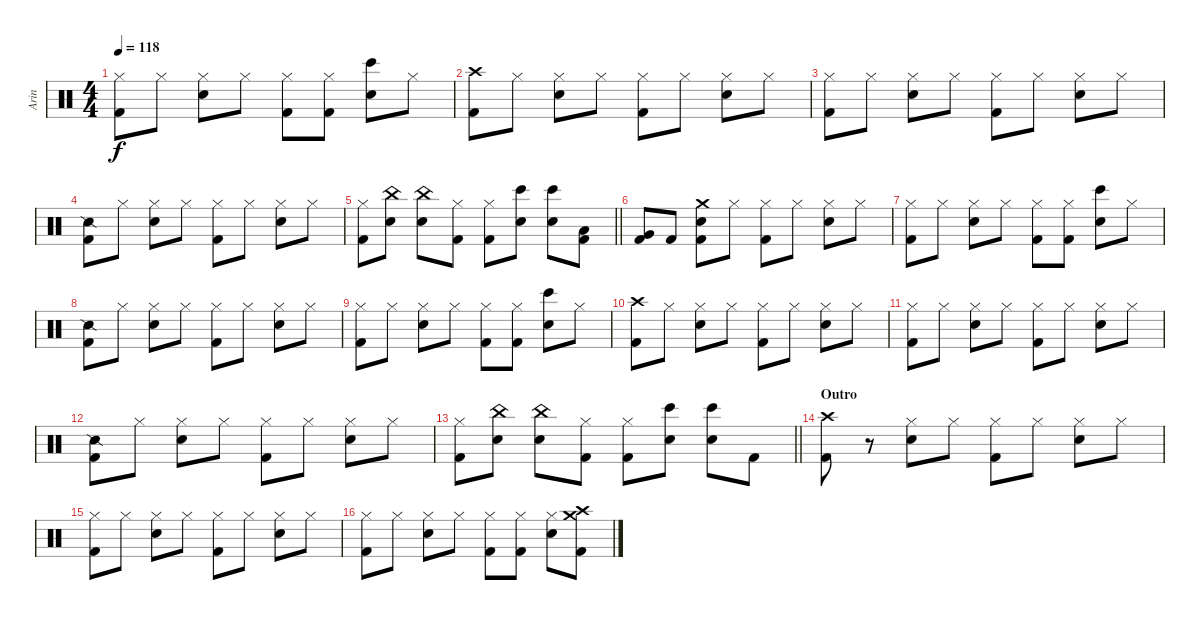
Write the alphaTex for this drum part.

\track ("Arin" "Arin") {instrument percussion}
\staff {score}
\articulation defaults
\ts (4 4)
\tempo 118
\clef neutral
\ks c
("Hi-Hat (closed)" "Kick (hit) 2").8{dy f} "Hi-Hat (closed)".8 ("Hi-Hat (closed)" "Electric Snare (hit)").8 "Hi-Hat (closed)".8 ("Hi-Hat (closed)" "Kick (hit) 2").8 ("Hi-Hat (closed)" "Kick (hit) 2").8 ("Bongo High (hit)" "Electric Snare (hit)").8 "Hi-Hat (closed)".8 |
("Crash high (hit)" "Kick (hit) 2").8 "Hi-Hat (closed)".8 ("Hi-Hat (closed)" "Electric Snare (hit)").8 "Hi-Hat (closed)".8 ("Hi-Hat (closed)" "Kick (hit) 2").8 "Hi-Hat (closed)".8 ("Hi-Hat (closed)" "Electric Snare (hit)").8 "Hi-Hat (closed)".8 |
("Hi-Hat (closed)" "Kick (hit) 2").8 "Hi-Hat (closed)".8 ("Hi-Hat (closed)" "Electric Snare (hit)").8 "Hi-Hat (closed)".8 ("Hi-Hat (closed)" "Kick (hit) 2").8 "Hi-Hat (closed)".8 ("Hi-Hat (closed)" "Electric Snare (hit)").8 "Hi-Hat (closed)".8 |
("Snare (side stick) 2" "Kick (hit) 2").8 "Hi-Hat (closed)".8 ("Hi-Hat (closed)" "Electric Snare (hit)").8 "Hi-Hat (closed)".8 ("Hi-Hat (closed)" "Kick (hit) 2").8 "Hi-Hat (closed)".8 ("Hi-Hat (closed)" "Electric Snare (hit)").8 "Hi-Hat (closed)".8 |
\barLineRight lightlight
("Hi-Hat (closed)" "Kick (hit) 2").8 ("China (hit)" "Electric Snare (hit)").8 ("China (hit)" "Electric Snare (hit)").8 ("Hi-Hat (closed)" "Kick (hit) 2").8 ("Hi-Hat (closed)" "Kick (hit) 2").8 ("Bongo High (hit)" "Electric Snare (hit)").8 ("Bongo High (hit)" "Electric Snare (hit)").8 ("Low Tom (hit)" "Kick (hit) 2").8 |
("Very Low Tom (hit)" "Kick (hit) 2").8 "Kick (hit) 2".8 ("Crash medium (hit)" "Electric Snare (hit)" "Kick (hit) 2").8 "Hi-Hat (closed)".8 ("Hi-Hat (closed)" "Kick (hit) 2").8 "Hi-Hat (closed)".8 ("Hi-Hat (closed)" "Electric Snare (hit)").8 "Hi-Hat (closed)".8 |
("Hi-Hat (closed)" "Kick (hit) 2").8 "Hi-Hat (closed)".8 ("Hi-Hat (closed)" "Electric Snare (hit)").8 "Hi-Hat (closed)".8 ("Hi-Hat (closed)" "Kick (hit) 2").8 ("Hi-Hat (closed)" "Kick (hit) 2").8 ("Bongo High (hit)" "Electric Snare (hit)").8 "Hi-Hat (closed)".8 |
("Snare (side stick) 2" "Kick (hit) 2").8 "Hi-Hat (closed)".8 ("Hi-Hat (closed)" "Electric Snare (hit)").8 "Hi-Hat (closed)".8 ("Hi-Hat (closed)" "Kick (hit) 2").8 "Hi-Hat (closed)".8 ("Hi-Hat (closed)" "Electric Snare (hit)").8 "Hi-Hat (closed)".8 |
("Hi-Hat (closed)" "Kick (hit) 2").8 "Hi-Hat (closed)".8 ("Hi-Hat (closed)" "Electric Snare (hit)").8 "Hi-Hat (closed)".8 ("Hi-Hat (closed)" "Kick (hit) 2").8 ("Hi-Hat (closed)" "Kick (hit) 2").8 ("Bongo High (hit)" "Electric Snare (hit)").8 "Hi-Hat (closed)".8 |
("Crash high (hit)" "Kick (hit) 2").8 "Hi-Hat (closed)".8 ("Hi-Hat (closed)" "Electric Snare (hit)").8 "Hi-Hat (closed)".8 ("Hi-Hat (closed)" "Kick (hit) 2").8 "Hi-Hat (closed)".8 ("Hi-Hat (closed)" "Electric Snare (hit)").8 "Hi-Hat (closed)".8 |
("Hi-Hat (closed)" "Kick (hit) 2").8 "Hi-Hat (closed)".8 ("Hi-Hat (closed)" "Electric Snare (hit)").8 "Hi-Hat (closed)".8 ("Hi-Hat (closed)" "Kick (hit) 2").8 "Hi-Hat (closed)".8 ("Hi-Hat (closed)" "Electric Snare (hit)").8 "Hi-Hat (closed)".8 |
("Snare (side stick) 2" "Kick (hit) 2").8 "Hi-Hat (closed)".8 ("Hi-Hat (closed)" "Electric Snare (hit)").8 "Hi-Hat (closed)".8 ("Hi-Hat (closed)" "Kick (hit) 2").8 "Hi-Hat (closed)".8 ("Hi-Hat (closed)" "Electric Snare (hit)").8 "Hi-Hat (closed)".8 |
\barLineRight lightlight
("Hi-Hat (closed)" "Kick (hit) 2").8 ("China (hit)" "Electric Snare (hit)").8 ("China (hit)" "Electric Snare (hit)").8 ("Hi-Hat (closed)" "Kick (hit) 2").8 ("Hi-Hat (closed)" "Kick (hit) 2").8 ("Bongo High (hit)" "Electric Snare (hit)").8 ("Bongo High (hit)" "Electric Snare (hit)").8 "Kick (hit) 2".8 |
\section ("" "Outro")
("Crash high (hit)" "Kick (hit) 2").8 r.8 ("Hi-Hat (closed)" "Electric Snare (hit)").8 "Hi-Hat (closed)".8 ("Hi-Hat (closed)" "Kick (hit) 2").8 "Hi-Hat (closed)".8 ("Hi-Hat (closed)" "Electric Snare (hit)").8 "Hi-Hat (closed)".8 |
("Hi-Hat (closed)" "Kick (hit) 2").8 "Hi-Hat (closed)".8 ("Hi-Hat (closed)" "Electric Snare (hit)").8 "Hi-Hat (closed)".8 ("Hi-Hat (closed)" "Kick (hit) 2").8 "Hi-Hat (closed)".8 ("Hi-Hat (closed)" "Electric Snare (hit)").8 "Hi-Hat (closed)".8 |
("Hi-Hat (closed)" "Kick (hit) 2").8 "Hi-Hat (closed)".8 ("Hi-Hat (closed)" "Electric Snare (hit)").8 "Hi-Hat (closed)".8 ("Hi-Hat (closed)" "Kick (hit) 2").8 ("Hi-Hat (closed)" "Kick (hit) 2").8 ("Hi-Hat (closed)" "Electric Snare (hit)").8 ("Crash medium (hit)" "Crash high (hit)" "Kick (hit) 2").8
